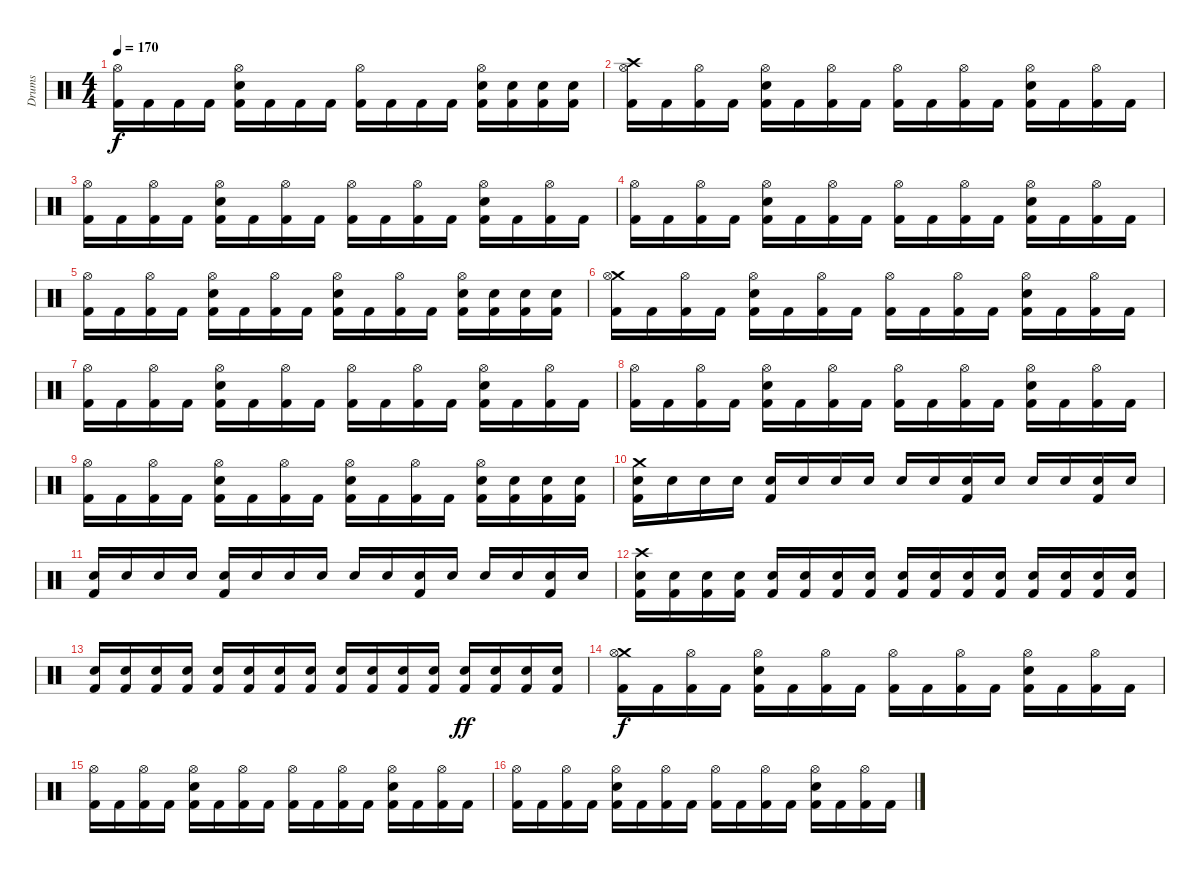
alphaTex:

\track ("Drums" "Drums") {instrument percussion}
\staff {score}
\articulation defaults
\ts (4 4)
\tempo 170
\clef neutral
\ks c
("Hi-Hat (open)" "Kick (hit) 2").16{dy f} "Kick (hit) 2".16 "Kick (hit) 2".16 "Kick (hit) 2".16 ("Hi-Hat (open)" "Electric Snare (hit)" "Kick (hit) 2").16 "Kick (hit) 2".16 "Kick (hit) 2".16 "Kick (hit) 2".16 ("Hi-Hat (open)" "Kick (hit) 2").16 "Kick (hit) 2".16 "Kick (hit) 2".16 "Kick (hit) 2".16 ("Hi-Hat (open)" "Electric Snare (hit)" "Kick (hit) 2").16 ("Electric Snare (hit)" "Kick (hit) 2").16 ("Electric Snare (hit)" "Kick (hit) 2").16 ("Electric Snare (hit)" "Kick (hit) 2").16 |
("Crash high (hit)" "Hi-Hat (open)" "Kick (hit) 2").16 "Kick (hit) 2".16 ("Hi-Hat (open)" "Kick (hit) 2").16 "Kick (hit) 2".16 ("Hi-Hat (open)" "Electric Snare (hit)" "Kick (hit) 2").16 "Kick (hit) 2".16 ("Hi-Hat (open)" "Kick (hit) 2").16 "Kick (hit) 2".16 ("Hi-Hat (open)" "Kick (hit) 2").16 "Kick (hit) 2".16 ("Hi-Hat (open)" "Kick (hit) 2").16 "Kick (hit) 2".16 ("Hi-Hat (open)" "Electric Snare (hit)" "Kick (hit) 2").16 "Kick (hit) 2".16 ("Hi-Hat (open)" "Kick (hit) 2").16 "Kick (hit) 2".16 |
("Hi-Hat (open)" "Kick (hit) 2").16 "Kick (hit) 2".16 ("Hi-Hat (open)" "Kick (hit) 2").16 "Kick (hit) 2".16 ("Hi-Hat (open)" "Electric Snare (hit)" "Kick (hit) 2").16 "Kick (hit) 2".16 ("Hi-Hat (open)" "Kick (hit) 2").16 "Kick (hit) 2".16 ("Hi-Hat (open)" "Kick (hit) 2").16 "Kick (hit) 2".16 ("Hi-Hat (open)" "Kick (hit) 2").16 "Kick (hit) 2".16 ("Hi-Hat (open)" "Electric Snare (hit)" "Kick (hit) 2").16 "Kick (hit) 2".16 ("Hi-Hat (open)" "Kick (hit) 2").16 "Kick (hit) 2".16 |
("Hi-Hat (open)" "Kick (hit) 2").16 "Kick (hit) 2".16 ("Hi-Hat (open)" "Kick (hit) 2").16 "Kick (hit) 2".16 ("Hi-Hat (open)" "Electric Snare (hit)" "Kick (hit) 2").16 "Kick (hit) 2".16 ("Hi-Hat (open)" "Kick (hit) 2").16 "Kick (hit) 2".16 ("Hi-Hat (open)" "Kick (hit) 2").16 "Kick (hit) 2".16 ("Hi-Hat (open)" "Kick (hit) 2").16 "Kick (hit) 2".16 ("Hi-Hat (open)" "Electric Snare (hit)" "Kick (hit) 2").16 "Kick (hit) 2".16 ("Hi-Hat (open)" "Kick (hit) 2").16 "Kick (hit) 2".16 |
("Hi-Hat (open)" "Kick (hit) 2").16 "Kick (hit) 2".16 ("Hi-Hat (open)" "Kick (hit) 2").16 "Kick (hit) 2".16 ("Hi-Hat (open)" "Electric Snare (hit)" "Kick (hit) 2").16 "Kick (hit) 2".16 ("Hi-Hat (open)" "Kick (hit) 2").16 "Kick (hit) 2".16 ("Hi-Hat (open)" "Electric Snare (hit)" "Kick (hit) 2").16 "Kick (hit) 2".16 ("Hi-Hat (open)" "Kick (hit) 2").16 "Kick (hit) 2".16 ("Hi-Hat (open)" "Electric Snare (hit)" "Kick (hit) 2").16 ("Electric Snare (hit)" "Kick (hit) 2").16 ("Electric Snare (hit)" "Kick (hit) 2").16 ("Electric Snare (hit)" "Kick (hit) 2").16 |
("Crash medium (hit)" "Hi-Hat (open)" "Kick (hit) 2").16 "Kick (hit) 2".16 ("Hi-Hat (open)" "Kick (hit) 2").16 "Kick (hit) 2".16 ("Hi-Hat (open)" "Electric Snare (hit)" "Kick (hit) 2").16 "Kick (hit) 2".16 ("Hi-Hat (open)" "Kick (hit) 2").16 "Kick (hit) 2".16 ("Hi-Hat (open)" "Kick (hit) 2").16 "Kick (hit) 2".16 ("Hi-Hat (open)" "Kick (hit) 2").16 "Kick (hit) 2".16 ("Hi-Hat (open)" "Electric Snare (hit)" "Kick (hit) 2").16 "Kick (hit) 2".16 ("Hi-Hat (open)" "Kick (hit) 2").16 "Kick (hit) 2".16 |
("Hi-Hat (open)" "Kick (hit) 2").16 "Kick (hit) 2".16 ("Hi-Hat (open)" "Kick (hit) 2").16 "Kick (hit) 2".16 ("Hi-Hat (open)" "Electric Snare (hit)" "Kick (hit) 2").16 "Kick (hit) 2".16 ("Hi-Hat (open)" "Kick (hit) 2").16 "Kick (hit) 2".16 ("Hi-Hat (open)" "Kick (hit) 2").16 "Kick (hit) 2".16 ("Hi-Hat (open)" "Kick (hit) 2").16 "Kick (hit) 2".16 ("Hi-Hat (open)" "Electric Snare (hit)" "Kick (hit) 2").16 "Kick (hit) 2".16 ("Hi-Hat (open)" "Kick (hit) 2").16 "Kick (hit) 2".16 |
("Hi-Hat (open)" "Kick (hit) 2").16 "Kick (hit) 2".16 ("Hi-Hat (open)" "Kick (hit) 2").16 "Kick (hit) 2".16 ("Hi-Hat (open)" "Electric Snare (hit)" "Kick (hit) 2").16 "Kick (hit) 2".16 ("Hi-Hat (open)" "Kick (hit) 2").16 "Kick (hit) 2".16 ("Hi-Hat (open)" "Kick (hit) 2").16 "Kick (hit) 2".16 ("Hi-Hat (open)" "Kick (hit) 2").16 "Kick (hit) 2".16 ("Hi-Hat (open)" "Electric Snare (hit)" "Kick (hit) 2").16 "Kick (hit) 2".16 ("Hi-Hat (open)" "Kick (hit) 2").16 "Kick (hit) 2".16 |
("Hi-Hat (open)" "Kick (hit) 2").16 "Kick (hit) 2".16 ("Hi-Hat (open)" "Kick (hit) 2").16 "Kick (hit) 2".16 ("Hi-Hat (open)" "Electric Snare (hit)" "Kick (hit) 2").16 "Kick (hit) 2".16 ("Hi-Hat (open)" "Kick (hit) 2").16 "Kick (hit) 2".16 ("Hi-Hat (open)" "Electric Snare (hit)" "Kick (hit) 2").16 "Kick (hit) 2".16 ("Hi-Hat (open)" "Kick (hit) 2").16 "Kick (hit) 2".16 ("Hi-Hat (open)" "Electric Snare (hit)" "Kick (hit) 2").16 ("Electric Snare (hit)" "Kick (hit) 2").16 ("Electric Snare (hit)" "Kick (hit) 2").16 ("Electric Snare (hit)" "Kick (hit) 2").16 |
("Crash medium (hit)" "Electric Snare (hit)" "Kick (hit) 2").16 "Electric Snare (hit)".16 "Electric Snare (hit)".16 "Electric Snare (hit)".16 ("Electric Snare (hit)" "Kick (hit) 2").16 "Electric Snare (hit)".16 "Electric Snare (hit)".16 "Electric Snare (hit)".16 "Electric Snare (hit)".16 "Electric Snare (hit)".16 ("Electric Snare (hit)" "Kick (hit) 2").16 "Electric Snare (hit)".16 "Electric Snare (hit)".16 "Electric Snare (hit)".16 ("Electric Snare (hit)" "Kick (hit) 2").16 "Electric Snare (hit)".16 |
("Electric Snare (hit)" "Kick (hit) 2").16 "Electric Snare (hit)".16 "Electric Snare (hit)".16 "Electric Snare (hit)".16 ("Electric Snare (hit)" "Kick (hit) 2").16 "Electric Snare (hit)".16 "Electric Snare (hit)".16 "Electric Snare (hit)".16 "Electric Snare (hit)".16 "Electric Snare (hit)".16 ("Electric Snare (hit)" "Kick (hit) 2").16 "Electric Snare (hit)".16 "Electric Snare (hit)".16 "Electric Snare (hit)".16 ("Electric Snare (hit)" "Kick (hit) 2").16 "Electric Snare (hit)".16 |
("Crash high (hit)" "Electric Snare (hit)" "Kick (hit) 2").16 ("Electric Snare (hit)" "Kick (hit) 2").16 ("Electric Snare (hit)" "Kick (hit) 2").16 ("Electric Snare (hit)" "Kick (hit) 2").16 ("Electric Snare (hit)" "Kick (hit) 2").16 ("Electric Snare (hit)" "Kick (hit) 2").16 ("Electric Snare (hit)" "Kick (hit) 2").16 ("Electric Snare (hit)" "Kick (hit) 2").16 ("Electric Snare (hit)" "Kick (hit) 2").16 ("Electric Snare (hit)" "Kick (hit) 2").16 ("Electric Snare (hit)" "Kick (hit) 2").16 ("Electric Snare (hit)" "Kick (hit) 2").16 ("Electric Snare (hit)" "Kick (hit) 2").16 ("Electric Snare (hit)" "Kick (hit) 2").16 ("Electric Snare (hit)" "Kick (hit) 2").16 ("Electric Snare (hit)" "Kick (hit) 2").16 |
("Electric Snare (hit)" "Kick (hit) 2").16 ("Electric Snare (hit)" "Kick (hit) 2").16 ("Electric Snare (hit)" "Kick (hit) 2").16 ("Electric Snare (hit)" "Kick (hit) 2").16 ("Electric Snare (hit)" "Kick (hit) 2").16 ("Electric Snare (hit)" "Kick (hit) 2").16 ("Electric Snare (hit)" "Kick (hit) 2").16 ("Electric Snare (hit)" "Kick (hit) 2").16 ("Electric Snare (hit)" "Kick (hit) 2").16 ("Electric Snare (hit)" "Kick (hit) 2").16 ("Electric Snare (hit)" "Kick (hit) 2").16 ("Electric Snare (hit)" "Kick (hit) 2").16 ("Electric Snare (hit)" "Kick (hit) 2").16{dy ff} ("Electric Snare (hit)" "Kick (hit) 2").16 ("Electric Snare (hit)" "Kick (hit) 2").16 ("Electric Snare (hit)" "Kick (hit) 2").16 |
("Crash medium (hit)" "Hi-Hat (open)" "Kick (hit) 2").16{dy f} "Kick (hit) 2".16 ("Hi-Hat (open)" "Kick (hit) 2").16 "Kick (hit) 2".16 ("Hi-Hat (open)" "Electric Snare (hit)" "Kick (hit) 2").16 "Kick (hit) 2".16 ("Hi-Hat (open)" "Kick (hit) 2").16 "Kick (hit) 2".16 ("Hi-Hat (open)" "Kick (hit) 2").16 "Kick (hit) 2".16 ("Hi-Hat (open)" "Kick (hit) 2").16 "Kick (hit) 2".16 ("Hi-Hat (open)" "Electric Snare (hit)" "Kick (hit) 2").16 "Kick (hit) 2".16 ("Hi-Hat (open)" "Kick (hit) 2").16 "Kick (hit) 2".16 |
("Hi-Hat (open)" "Kick (hit) 2").16 "Kick (hit) 2".16 ("Hi-Hat (open)" "Kick (hit) 2").16 "Kick (hit) 2".16 ("Hi-Hat (open)" "Electric Snare (hit)" "Kick (hit) 2").16 "Kick (hit) 2".16 ("Hi-Hat (open)" "Kick (hit) 2").16 "Kick (hit) 2".16 ("Hi-Hat (open)" "Kick (hit) 2").16 "Kick (hit) 2".16 ("Hi-Hat (open)" "Kick (hit) 2").16 "Kick (hit) 2".16 ("Hi-Hat (open)" "Electric Snare (hit)" "Kick (hit) 2").16 "Kick (hit) 2".16 ("Hi-Hat (open)" "Kick (hit) 2").16 "Kick (hit) 2".16 |
("Hi-Hat (open)" "Kick (hit) 2").16 "Kick (hit) 2".16 ("Hi-Hat (open)" "Kick (hit) 2").16 "Kick (hit) 2".16 ("Hi-Hat (open)" "Electric Snare (hit)" "Kick (hit) 2").16 "Kick (hit) 2".16 ("Hi-Hat (open)" "Kick (hit) 2").16 "Kick (hit) 2".16 ("Hi-Hat (open)" "Kick (hit) 2").16 "Kick (hit) 2".16 ("Hi-Hat (open)" "Kick (hit) 2").16 "Kick (hit) 2".16 ("Hi-Hat (open)" "Electric Snare (hit)" "Kick (hit) 2").16 "Kick (hit) 2".16 ("Hi-Hat (open)" "Kick (hit) 2").16 "Kick (hit) 2".16
